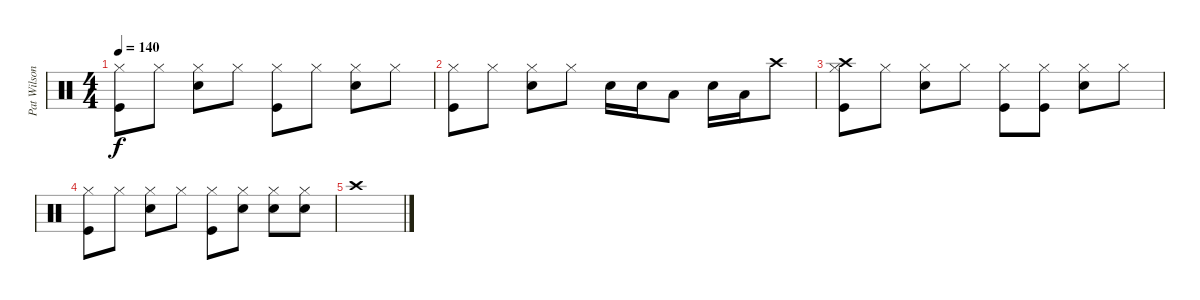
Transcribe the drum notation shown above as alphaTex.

\track ("Pat Wilson " "Pat Wilson") {instrument percussion}
\staff {score}
\articulation defaults
\ts (4 4)
\tempo 140
\clef neutral
\ks c
("Kick (hit)" "Hi-Hat (closed)").8{dy f} "Hi-Hat (closed)".8 ("Snare (hit) 2" "Hi-Hat (closed)").8 "Hi-Hat (closed)".8 ("Kick (hit)" "Hi-Hat (closed)").8 "Hi-Hat (closed)".8 ("Snare (hit) 2" "Hi-Hat (closed)").8 "Hi-Hat (closed)".8 |
("Kick (hit)" "Hi-Hat (closed)").8 "Hi-Hat (closed)".8 ("Snare (hit) 2" "Hi-Hat (closed)").8 "Hi-Hat (closed)".8 "Snare (hit) 2".16 "Snare (hit) 2".16 "Low Tom (hit)".8 "Snare (hit) 2".16 "Low Tom (hit)".16 "Crash high (hit)".8 |
("Crash high (hit)" "Kick (hit)" "Hi-Hat (closed)").8 "Hi-Hat (closed)".8 ("Snare (hit) 2" "Hi-Hat (closed)").8 "Hi-Hat (closed)".8 ("Kick (hit)" "Hi-Hat (closed)").8 ("Kick (hit)" "Hi-Hat (closed)").8 ("Snare (hit) 2" "Hi-Hat (closed)").8 "Hi-Hat (closed)".8 |
("Kick (hit)" "Hi-Hat (closed)").8 "Hi-Hat (closed)".8 ("Snare (hit) 2" "Hi-Hat (closed)").8 "Hi-Hat (closed)".8 ("Kick (hit)" "Hi-Hat (closed)").8 ("Snare (hit) 2" "Hi-Hat (closed)").8 ("Snare (hit) 2" "Hi-Hat (closed)").8 ("Snare (hit) 2" "Hi-Hat (closed)").8 |
"Crash high (hit)".1
